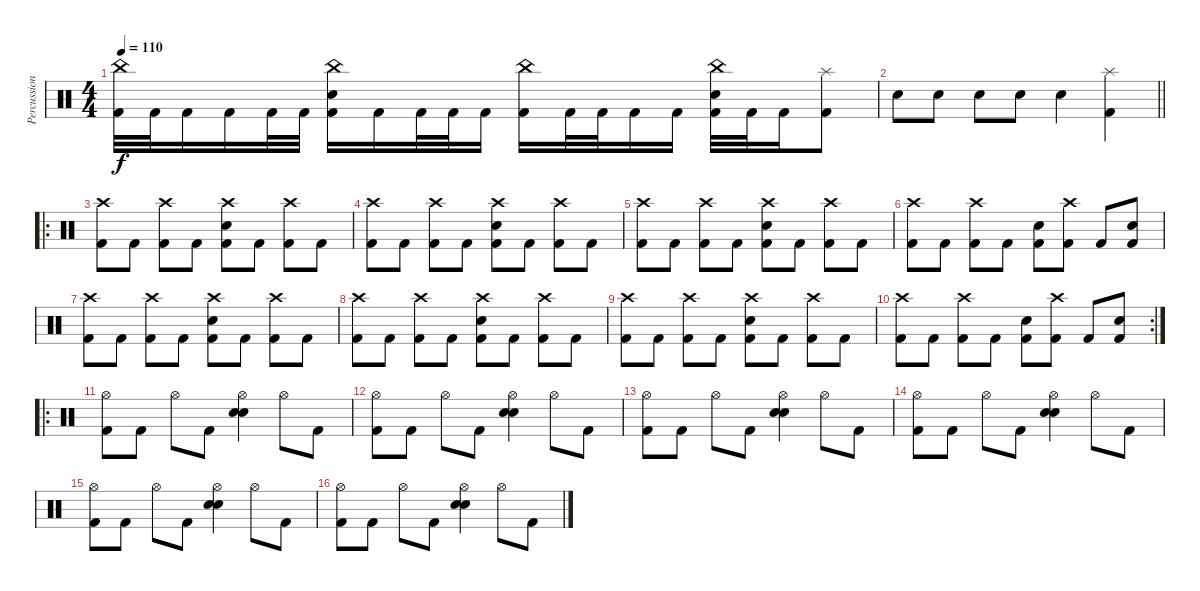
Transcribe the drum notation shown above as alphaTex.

\track ("Percussions" "Percussion") {instrument percussion}
\staff {score}
\articulation defaults
\ts (4 4)
\tempo 110
\clef neutral
\ks c
("China (hit)" "Kick (hit) 2").32{dy f} "Kick (hit) 2".32 "Kick (hit) 2".16 "Kick (hit) 2".16 "Kick (hit) 2".32 "Kick (hit) 2".32 ("China (hit)" "Electric Snare (hit)" "Kick (hit) 2").16 "Kick (hit) 2".16 "Kick (hit) 2".32 "Kick (hit) 2".32 "Kick (hit) 2".16 ("China (hit)" "Kick (hit) 2").16 "Kick (hit) 2".32 "Kick (hit) 2".32 "Kick (hit) 2".16 "Kick (hit) 2".16 ("China (hit)" "Electric Snare (hit)" "Kick (hit) 2").32 "Kick (hit) 2".32 "Kick (hit) 2".16 ("Splash (hit)" "Kick (hit) 2").8 |
\barLineRight lightlight "Electric Snare (hit)".8 "Electric Snare (hit)".8 "Electric Snare (hit)".8 "Electric Snare (hit)".8 "Electric Snare (hit)".4
("Splash (hit)" "Kick (hit) 2").4 |
\ro
("Crash high (hit)" "Kick (hit) 2").8 "Kick (hit) 2".8 ("Crash high (hit)" "Kick (hit) 2").8 "Kick (hit) 2".8 ("Crash high (hit)" "Electric Snare (hit)" "Kick (hit) 2").8 "Kick (hit) 2".8 ("Crash high (hit)" "Kick (hit) 2").8 "Kick (hit) 2".8 |
("Crash high (hit)" "Kick (hit) 2").8 "Kick (hit) 2".8 ("Crash high (hit)" "Kick (hit) 2").8 "Kick (hit) 2".8 ("Crash high (hit)" "Electric Snare (hit)" "Kick (hit) 2").8 "Kick (hit) 2".8 ("Crash high (hit)" "Kick (hit) 2").8 "Kick (hit) 2".8 |
("Crash high (hit)" "Kick (hit) 2").8 "Kick (hit) 2".8 ("Crash high (hit)" "Kick (hit) 2").8 "Kick (hit) 2".8 ("Crash high (hit)" "Electric Snare (hit)" "Kick (hit) 2").8 "Kick (hit) 2".8 ("Crash high (hit)" "Kick (hit) 2").8 "Kick (hit) 2".8 |
("Crash high (hit)" "Kick (hit) 2").8 "Kick (hit) 2".8 ("Crash high (hit)" "Kick (hit) 2").8 "Kick (hit) 2".8 ("Electric Snare (hit)" "Kick (hit) 2").8 ("Crash high (hit)" "Kick (hit) 2").8 "Kick (hit) 2".8 ("Electric Snare (hit)" "Kick (hit) 2").8 |
("Crash high (hit)" "Kick (hit) 2").8 "Kick (hit) 2".8 ("Crash high (hit)" "Kick (hit) 2").8 "Kick (hit) 2".8 ("Crash high (hit)" "Electric Snare (hit)" "Kick (hit) 2").8 "Kick (hit) 2".8 ("Crash high (hit)" "Kick (hit) 2").8 "Kick (hit) 2".8 |
("Crash high (hit)" "Kick (hit) 2").8 "Kick (hit) 2".8 ("Crash high (hit)" "Kick (hit) 2").8 "Kick (hit) 2".8 ("Crash high (hit)" "Electric Snare (hit)" "Kick (hit) 2").8 "Kick (hit) 2".8 ("Crash high (hit)" "Kick (hit) 2").8 "Kick (hit) 2".8 |
("Crash high (hit)" "Kick (hit) 2").8 "Kick (hit) 2".8 ("Crash high (hit)" "Kick (hit) 2").8 "Kick (hit) 2".8 ("Crash high (hit)" "Electric Snare (hit)" "Kick (hit) 2").8 "Kick (hit) 2".8 ("Crash high (hit)" "Kick (hit) 2").8 "Kick (hit) 2".8 |
\rc 2
("Crash high (hit)" "Kick (hit) 2").8 "Kick (hit) 2".8 ("Crash high (hit)" "Kick (hit) 2").8 "Kick (hit) 2".8 ("Electric Snare (hit)" "Kick (hit) 2").8 ("Crash high (hit)" "Kick (hit) 2").8 "Kick (hit) 2".8 ("Electric Snare (hit)" "Kick (hit) 2").8 |
\ro
("Hi-Hat (open)" "Kick (hit) 2").8 "Kick (hit) 2".8 "Hi-Hat (open)".8 "Kick (hit) 2".8 ("Hand Clap (hit)" "Hi-Hat (open)" "Electric Snare (hit)").4 "Hi-Hat (open)".8 "Kick (hit) 2".8 |
("Hi-Hat (open)" "Kick (hit) 2").8 "Kick (hit) 2".8 "Hi-Hat (open)".8 "Kick (hit) 2".8 ("Hand Clap (hit)" "Hi-Hat (open)" "Electric Snare (hit)").4 "Hi-Hat (open)".8 "Kick (hit) 2".8 |
("Hi-Hat (open)" "Kick (hit) 2").8 "Kick (hit) 2".8 "Hi-Hat (open)".8 "Kick (hit) 2".8 ("Hand Clap (hit)" "Hi-Hat (open)" "Electric Snare (hit)").4 "Hi-Hat (open)".8 "Kick (hit) 2".8 |
("Hi-Hat (open)" "Kick (hit) 2").8 "Kick (hit) 2".8 "Hi-Hat (open)".8 "Kick (hit) 2".8 ("Hand Clap (hit)" "Hi-Hat (open)" "Electric Snare (hit)").4 "Hi-Hat (open)".8 "Kick (hit) 2".8 |
("Hi-Hat (open)" "Kick (hit) 2").8 "Kick (hit) 2".8 "Hi-Hat (open)".8 "Kick (hit) 2".8 ("Hand Clap (hit)" "Hi-Hat (open)" "Electric Snare (hit)").4 "Hi-Hat (open)".8 "Kick (hit) 2".8 |
("Hi-Hat (open)" "Kick (hit) 2").8 "Kick (hit) 2".8 "Hi-Hat (open)".8 "Kick (hit) 2".8 ("Hand Clap (hit)" "Hi-Hat (open)" "Electric Snare (hit)").4 "Hi-Hat (open)".8 "Kick (hit) 2".8
